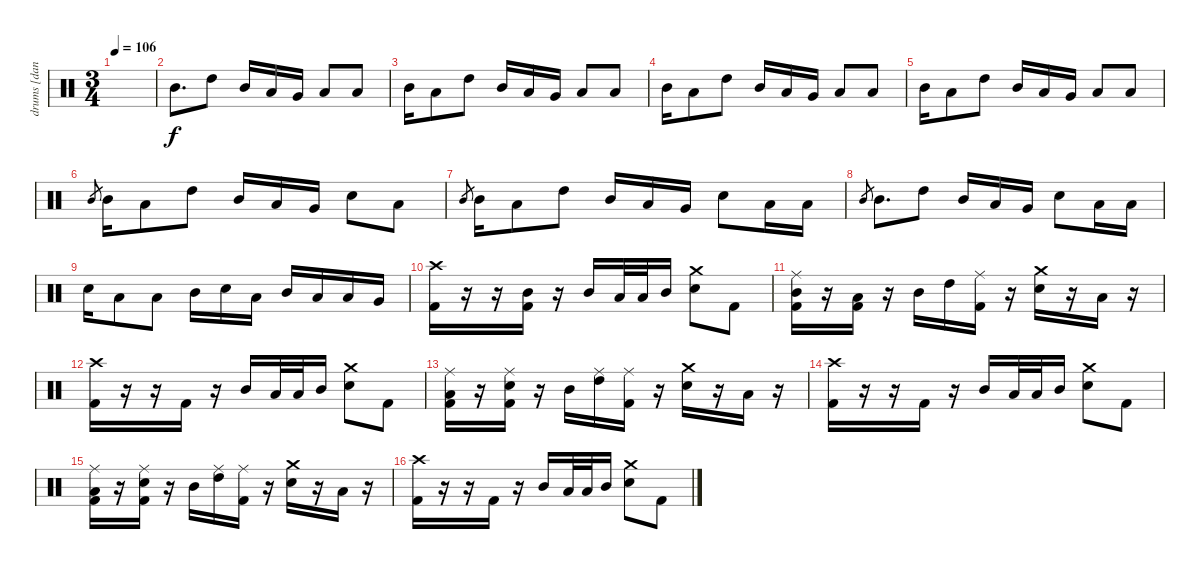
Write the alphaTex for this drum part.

\track ("drums [danny carey]" "drums [dan") {instrument percussion}
\staff {score}
\articulation defaults
\ts (3 4)
\tempo 106
\clef neutral
\ks c
|
"Mid Tom (hit)".8{d volume 11} "High Tom (hit)".8 "Mid Tom (hit)".16 "Low Tom (hit)".16 "Very Low Tom (hit)".16 "Low Tom (hit)".8 "Low Tom (hit)".8 |
"Mid Tom (hit)".16 "Low Tom (hit)".8 "High Tom (hit)".8 "Mid Tom (hit)".16 "Low Tom (hit)".16 "Very Low Tom (hit)".16 "Low Tom (hit)".8 "Low Tom (hit)".8 |
"Mid Tom (hit)".16 "Low Tom (hit)".8 "High Tom (hit)".8 "Mid Tom (hit)".16 "Low Tom (hit)".16 "Very Low Tom (hit)".16 "Low Tom (hit)".8 "Low Tom (hit)".8 |
"Mid Tom (hit)".16 "Low Tom (hit)".8 "High Tom (hit)".8 "Mid Tom (hit)".16 "Low Tom (hit)".16 "Very Low Tom (hit)".16 "Low Tom (hit)".8 "Low Tom (hit)".8 |
"Mid Tom (hit)".8{gr} "Mid Tom (hit)".16{volume 12} "Low Tom (hit)".8 "High Tom (hit)".8 "Mid Tom (hit)".16 "Low Tom (hit)".16 "Very Low Tom (hit)".16 "Electric Snare (hit)".8 "Low Tom (hit)".8 |
"Mid Tom (hit)".8{gr} "Mid Tom (hit)".16{volume 13} "Low Tom (hit)".8 "High Tom (hit)".8 "Mid Tom (hit)".16 "Low Tom (hit)".16 "Very Low Tom (hit)".16 "Electric Snare (hit)".8 "Low Tom (hit)".16 "Low Tom (hit)".16 |
"Mid Tom (hit)".8{gr} "Mid Tom (hit)".8{d volume 13} "High Tom (hit)".8 "Mid Tom (hit)".16 "Low Tom (hit)".16 "Very Low Tom (hit)".16 "Electric Snare (hit)".8 "Low Tom (hit)".16 "Low Tom (hit)".16 |
"Electric Snare (hit)".16 "Low Tom (hit)".8 "Low Tom (hit)".8 "Mid Tom (hit)".16 "Electric Snare (hit)".16 "Low Tom (hit)".16 "Mid Tom (hit)".16 "Low Tom (hit)".16 "Low Tom (hit)".16 "Very Low Tom (hit)".16 |
("Crash high (hit)" "Kick (hit) 2").16 r.16 r.16 ("Mid Tom (hit)" "Kick (hit) 2").16 r.16 "Mid Tom (hit)".16 "Low Tom (hit)".32 "Low Tom (hit)".32 "Mid Tom (hit)".16 ("Crash medium (hit)" "Electric Snare (hit)").8 "Kick (hit) 2".8 |
("Ride (middle)" "Mid Tom (hit)" "Kick (hit) 2").16 r.16 ("Low Tom (hit)" "Kick (hit) 2").16 r.16 "Mid Tom (hit)".16 "High Tom (hit)".16 ("Ride (middle)" "Kick (hit) 2").16 r.16 ("Crash medium (hit)" "Electric Snare (hit)").16 r.16 "Low Tom (hit)".16 r.16 |
("Crash high (hit)" "Kick (hit) 2").16 r.16 r.16 "Kick (hit) 2".16 r.16 "Mid Tom (hit)".16 "Low Tom (hit)".32 "Low Tom (hit)".32 "Mid Tom (hit)".16 ("Crash medium (hit)" "Electric Snare (hit)").8 "Kick (hit) 2".8 |
("Ride (middle)" "Low Tom (hit)" "Kick (hit) 2").16 r.16 ("Ride (middle)" "Electric Snare (hit)" "Kick (hit) 2").16 r.16 "Mid Tom (hit)".16 ("Ride (middle)" "High Tom (hit)").16 ("Ride (middle)" "Kick (hit) 2").16 r.16 ("Crash medium (hit)" "Electric Snare (hit)").16 r.16 "Low Tom (hit)".16 r.16 |
("Crash high (hit)" "Kick (hit) 2").16 r.16 r.16 "Kick (hit) 2".16 r.16 "Mid Tom (hit)".16 "Low Tom (hit)".32 "Low Tom (hit)".32 "Mid Tom (hit)".16 ("Crash medium (hit)" "Electric Snare (hit)").8 "Kick (hit) 2".8 |
("Ride (middle)" "Low Tom (hit)" "Kick (hit) 2").16 r.16 ("Ride (middle)" "Electric Snare (hit)" "Kick (hit) 2").16 r.16 "Mid Tom (hit)".16 ("Ride (middle)" "High Tom (hit)").16 ("Ride (middle)" "Kick (hit) 2").16 r.16 ("Crash medium (hit)" "Electric Snare (hit)").16 r.16 "Low Tom (hit)".16 r.16 |
("Crash high (hit)" "Kick (hit) 2").16 r.16 r.16 "Kick (hit) 2".16 r.16 "Mid Tom (hit)".16 "Low Tom (hit)".32 "Low Tom (hit)".32 "Mid Tom (hit)".16 ("Crash medium (hit)" "Electric Snare (hit)").8 "Kick (hit) 2".8
